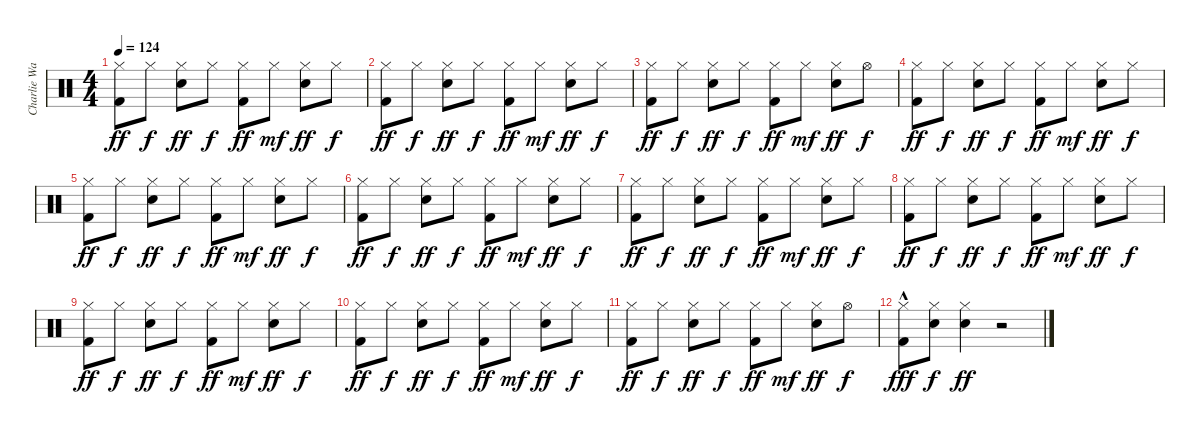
\track ("Charlie Watts" "Charlie Wa") {instrument percussion}
\staff {score}
\articulation defaults
\ts (4 4)
\tempo 124
\clef neutral
\ks c
("Kick (hit) 2" "Hi-Hat (closed)").8{dy ff} "Hi-Hat (closed)".8{dy f} ("Snare (hit) 2" "Hi-Hat (closed)").8{dy ff} "Hi-Hat (closed)".8{dy f} ("Kick (hit) 2" "Hi-Hat (closed)").8{dy ff} "Hi-Hat (closed)".8{dy mf} ("Snare (hit) 2" "Hi-Hat (closed)").8{dy ff} "Hi-Hat (closed)".8{dy f} |
("Kick (hit) 2" "Hi-Hat (closed)").8{dy ff} "Hi-Hat (closed)".8{dy f} ("Snare (hit) 2" "Hi-Hat (closed)").8{dy ff} "Hi-Hat (closed)".8{dy f} ("Kick (hit) 2" "Hi-Hat (closed)").8{dy ff} "Hi-Hat (closed)".8{dy mf} ("Snare (hit) 2" "Hi-Hat (closed)").8{dy ff} "Hi-Hat (closed)".8{dy f} |
("Kick (hit) 2" "Hi-Hat (closed)").8{dy ff} "Hi-Hat (closed)".8{dy f} ("Snare (hit) 2" "Hi-Hat (closed)").8{dy ff} "Hi-Hat (closed)".8{dy f} ("Kick (hit) 2" "Hi-Hat (closed)").8{dy ff} "Hi-Hat (closed)".8{dy mf} ("Snare (hit) 2" "Hi-Hat (closed)").8{dy ff} "Hi-Hat (open)".8{dy f} |
("Kick (hit) 2" "Hi-Hat (closed)").8{dy ff} "Hi-Hat (closed)".8{dy f} ("Snare (hit) 2" "Hi-Hat (closed)").8{dy ff} "Hi-Hat (closed)".8{dy f} ("Kick (hit) 2" "Hi-Hat (closed)").8{dy ff} "Hi-Hat (closed)".8{dy mf} ("Snare (hit) 2" "Hi-Hat (closed)").8{dy ff} "Hi-Hat (closed)".8{dy f} |
("Kick (hit) 2" "Hi-Hat (closed)").8{dy ff} "Hi-Hat (closed)".8{dy f} ("Snare (hit) 2" "Hi-Hat (closed)").8{dy ff} "Hi-Hat (closed)".8{dy f} ("Kick (hit) 2" "Hi-Hat (closed)").8{dy ff} "Hi-Hat (closed)".8{dy mf} ("Snare (hit) 2" "Hi-Hat (closed)").8{dy ff} "Hi-Hat (closed)".8{dy f} |
("Kick (hit) 2" "Hi-Hat (closed)").8{dy ff} "Hi-Hat (closed)".8{dy f} ("Snare (hit) 2" "Hi-Hat (closed)").8{dy ff} "Hi-Hat (closed)".8{dy f} ("Kick (hit) 2" "Hi-Hat (closed)").8{dy ff} "Hi-Hat (closed)".8{dy mf} ("Snare (hit) 2" "Hi-Hat (closed)").8{dy ff} "Hi-Hat (closed)".8{dy f} |
("Kick (hit) 2" "Hi-Hat (closed)").8{dy ff} "Hi-Hat (closed)".8{dy f} ("Snare (hit) 2" "Hi-Hat (closed)").8{dy ff} "Hi-Hat (closed)".8{dy f} ("Kick (hit) 2" "Hi-Hat (closed)").8{dy ff} "Hi-Hat (closed)".8{dy mf} ("Snare (hit) 2" "Hi-Hat (closed)").8{dy ff} "Hi-Hat (closed)".8{dy f} |
("Kick (hit) 2" "Hi-Hat (closed)").8{dy ff} "Hi-Hat (closed)".8{dy f} ("Snare (hit) 2" "Hi-Hat (closed)").8{dy ff} "Hi-Hat (closed)".8{dy f} ("Kick (hit) 2" "Hi-Hat (closed)").8{dy ff} "Hi-Hat (closed)".8{dy mf} ("Snare (hit) 2" "Hi-Hat (closed)").8{dy ff} "Hi-Hat (closed)".8{dy f} |
("Kick (hit) 2" "Hi-Hat (closed)").8{dy ff} "Hi-Hat (closed)".8{dy f} ("Snare (hit) 2" "Hi-Hat (closed)").8{dy ff} "Hi-Hat (closed)".8{dy f} ("Kick (hit) 2" "Hi-Hat (closed)").8{dy ff} "Hi-Hat (closed)".8{dy mf} ("Snare (hit) 2" "Hi-Hat (closed)").8{dy ff} "Hi-Hat (closed)".8{dy f} |
("Kick (hit) 2" "Hi-Hat (closed)").8{dy ff} "Hi-Hat (closed)".8{dy f} ("Snare (hit) 2" "Hi-Hat (closed)").8{dy ff} "Hi-Hat (closed)".8{dy f} ("Kick (hit) 2" "Hi-Hat (closed)").8{dy ff} "Hi-Hat (closed)".8{dy mf} ("Snare (hit) 2" "Hi-Hat (closed)").8{dy ff} "Hi-Hat (closed)".8{dy f} |
("Kick (hit) 2" "Hi-Hat (closed)").8{dy ff} "Hi-Hat (closed)".8{dy f} ("Snare (hit) 2" "Hi-Hat (closed)").8{dy ff} "Hi-Hat (closed)".8{dy f} ("Kick (hit) 2" "Hi-Hat (closed)").8{dy ff} "Hi-Hat (closed)".8{dy mf} ("Snare (hit) 2" "Hi-Hat (closed)").8{dy ff} "Hi-Hat (open)".8{dy f} |
("Kick (hit) 2"{hac} "Hi-Hat (closed)").8{dy fff} ("Snare (hit) 2" "Hi-Hat (closed)").8{dy f} ("Snare (hit) 2" "Hi-Hat (closed)").4{dy ff} r.2
